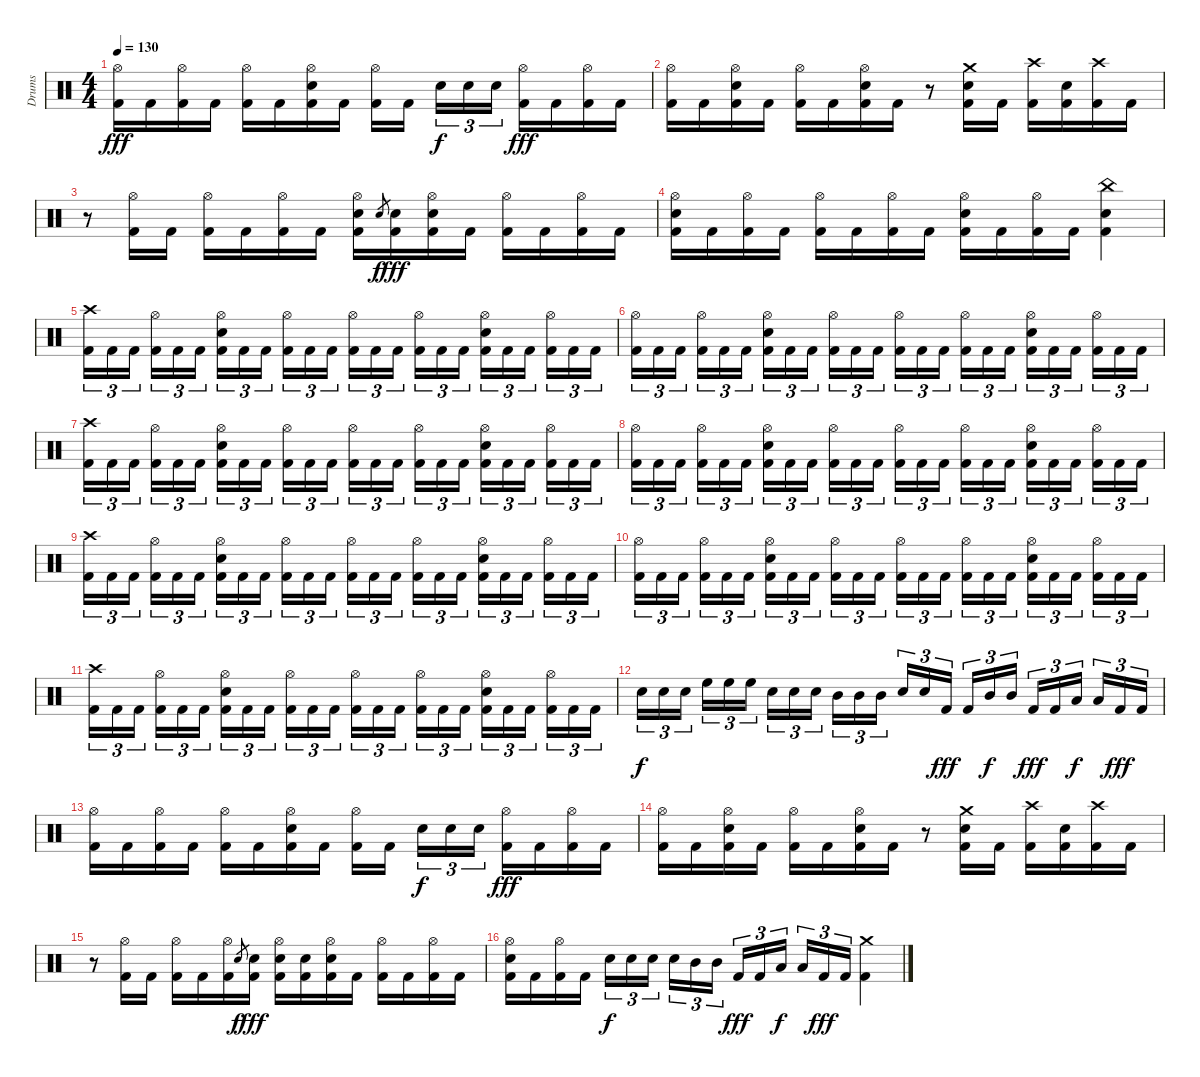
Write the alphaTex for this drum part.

\track ("Drums" "Drums") {instrument percussion}
\staff {score}
\articulation defaults
\ts (4 4)
\tempo 130
\clef neutral
\ks c
("Hi-Hat (open)" "Kick (hit) 2").16{dy fff} "Kick (hit) 2".16 ("Hi-Hat (open)" "Kick (hit) 2").16 "Kick (hit) 2".16 ("Hi-Hat (open)" "Kick (hit) 2").16 "Kick (hit) 2".16 ("Hi-Hat (open)" "Electric Snare (hit)" "Kick (hit) 2").16 "Kick (hit) 2".16 ("Hi-Hat (open)" "Kick (hit) 2").16 "Kick (hit) 2".16 "Electric Snare (hit)".16{tu (3 2) dy f} "Electric Snare (hit)".16{tu (3 2)} "Electric Snare (hit)".16{tu (3 2)} ("Hi-Hat (open)" "Kick (hit) 2").16{dy fff} "Kick (hit) 2".16 ("Hi-Hat (open)" "Kick (hit) 2").16 "Kick (hit) 2".16 |
("Hi-Hat (open)" "Kick (hit) 2").16 "Kick (hit) 2".16 ("Hi-Hat (open)" "Electric Snare (hit)" "Kick (hit) 2").16 "Kick (hit) 2".16 ("Hi-Hat (open)" "Kick (hit) 2").16 "Kick (hit) 2".16 ("Hi-Hat (open)" "Electric Snare (hit)" "Kick (hit) 2").16 "Kick (hit) 2".16 r.8 ("Crash medium (hit)" "Electric Snare (hit)" "Kick (hit) 2").16 "Kick (hit) 2".16 ("Crash high (hit)" "Kick (hit) 2").16 ("Electric Snare (hit)" "Kick (hit) 2").16 ("Crash high (hit)" "Kick (hit) 2").16 "Kick (hit) 2".16 |
r.8 ("Hi-Hat (open)" "Kick (hit) 2").16 "Kick (hit) 2".16 ("Hi-Hat (open)" "Kick (hit) 2").16 "Kick (hit) 2".16 ("Hi-Hat (open)" "Kick (hit) 2").16 "Kick (hit) 2".16 ("Hi-Hat (open)" "Electric Snare (hit)" "Kick (hit) 2").16 "Electric Snare (hit)".8{gr dy f} ("Electric Snare (hit)" "Kick (hit) 2").16{dy fff} ("Hi-Hat (open)" "Electric Snare (hit)" "Kick (hit) 2").16 "Kick (hit) 2".16 ("Hi-Hat (open)" "Kick (hit) 2").16 "Kick (hit) 2".16 ("Hi-Hat (open)" "Kick (hit) 2").16 "Kick (hit) 2".16 |
("Hi-Hat (open)" "Electric Snare (hit)" "Kick (hit) 2").16 "Kick (hit) 2".16 ("Hi-Hat (open)" "Kick (hit) 2").16 "Kick (hit) 2".16 ("Hi-Hat (open)" "Kick (hit) 2").16 "Kick (hit) 2".16 ("Hi-Hat (open)" "Kick (hit) 2").16 "Kick (hit) 2".16 ("Hi-Hat (open)" "Electric Snare (hit)" "Kick (hit) 2").16 "Kick (hit) 2".16 ("Hi-Hat (open)" "Kick (hit) 2").16 "Kick (hit) 2".16 ("China (hit)" "Electric Snare (hit)" "Kick (hit) 2").4 |
("Crash high (hit)" "Kick (hit) 2").16{tu (3 2)} "Kick (hit) 2".16{tu (3 2)} "Kick (hit) 2".16{tu (3 2)} ("Hi-Hat (open)" "Kick (hit) 2").16{tu (3 2)} "Kick (hit) 2".16{tu (3 2)} "Kick (hit) 2".16{tu (3 2)} ("Hi-Hat (open)" "Electric Snare (hit)" "Kick (hit) 2").16{tu (3 2)} "Kick (hit) 2".16{tu (3 2)} "Kick (hit) 2".16{tu (3 2)} ("Hi-Hat (open)" "Kick (hit) 2").16{tu (3 2)} "Kick (hit) 2".16{tu (3 2)} "Kick (hit) 2".16{tu (3 2)} ("Hi-Hat (open)" "Kick (hit) 2").16{tu (3 2)} "Kick (hit) 2".16{tu (3 2)} "Kick (hit) 2".16{tu (3 2)} ("Hi-Hat (open)" "Kick (hit) 2").16{tu (3 2)} "Kick (hit) 2".16{tu (3 2)} "Kick (hit) 2".16{tu (3 2)} ("Hi-Hat (open)" "Electric Snare (hit)" "Kick (hit) 2").16{tu (3 2)} "Kick (hit) 2".16{tu (3 2)} "Kick (hit) 2".16{tu (3 2)} ("Hi-Hat (open)" "Kick (hit) 2").16{tu (3 2)} "Kick (hit) 2".16{tu (3 2)} "Kick (hit) 2".16{tu (3 2)} |
("Hi-Hat (open)" "Kick (hit) 2").16{tu (3 2)} "Kick (hit) 2".16{tu (3 2)} "Kick (hit) 2".16{tu (3 2)} ("Hi-Hat (open)" "Kick (hit) 2").16{tu (3 2)} "Kick (hit) 2".16{tu (3 2)} "Kick (hit) 2".16{tu (3 2)} ("Hi-Hat (open)" "Electric Snare (hit)" "Kick (hit) 2").16{tu (3 2)} "Kick (hit) 2".16{tu (3 2)} "Kick (hit) 2".16{tu (3 2)} ("Hi-Hat (open)" "Kick (hit) 2").16{tu (3 2)} "Kick (hit) 2".16{tu (3 2)} "Kick (hit) 2".16{tu (3 2)} ("Hi-Hat (open)" "Kick (hit) 2").16{tu (3 2)} "Kick (hit) 2".16{tu (3 2)} "Kick (hit) 2".16{tu (3 2)} ("Hi-Hat (open)" "Kick (hit) 2").16{tu (3 2)} "Kick (hit) 2".16{tu (3 2)} "Kick (hit) 2".16{tu (3 2)} ("Hi-Hat (open)" "Electric Snare (hit)" "Kick (hit) 2").16{tu (3 2)} "Kick (hit) 2".16{tu (3 2)} "Kick (hit) 2".16{tu (3 2)} ("Hi-Hat (open)" "Kick (hit) 2").16{tu (3 2)} "Kick (hit) 2".16{tu (3 2)} "Kick (hit) 2".16{tu (3 2)} |
("Crash high (hit)" "Kick (hit) 2").16{tu (3 2)} "Kick (hit) 2".16{tu (3 2)} "Kick (hit) 2".16{tu (3 2)} ("Hi-Hat (open)" "Kick (hit) 2").16{tu (3 2)} "Kick (hit) 2".16{tu (3 2)} "Kick (hit) 2".16{tu (3 2)} ("Hi-Hat (open)" "Electric Snare (hit)" "Kick (hit) 2").16{tu (3 2)} "Kick (hit) 2".16{tu (3 2)} "Kick (hit) 2".16{tu (3 2)} ("Hi-Hat (open)" "Kick (hit) 2").16{tu (3 2)} "Kick (hit) 2".16{tu (3 2)} "Kick (hit) 2".16{tu (3 2)} ("Hi-Hat (open)" "Kick (hit) 2").16{tu (3 2)} "Kick (hit) 2".16{tu (3 2)} "Kick (hit) 2".16{tu (3 2)} ("Hi-Hat (open)" "Kick (hit) 2").16{tu (3 2)} "Kick (hit) 2".16{tu (3 2)} "Kick (hit) 2".16{tu (3 2)} ("Hi-Hat (open)" "Electric Snare (hit)" "Kick (hit) 2").16{tu (3 2)} "Kick (hit) 2".16{tu (3 2)} "Kick (hit) 2".16{tu (3 2)} ("Hi-Hat (open)" "Kick (hit) 2").16{tu (3 2)} "Kick (hit) 2".16{tu (3 2)} "Kick (hit) 2".16{tu (3 2)} |
("Hi-Hat (open)" "Kick (hit) 2").16{tu (3 2)} "Kick (hit) 2".16{tu (3 2)} "Kick (hit) 2".16{tu (3 2)} ("Hi-Hat (open)" "Kick (hit) 2").16{tu (3 2)} "Kick (hit) 2".16{tu (3 2)} "Kick (hit) 2".16{tu (3 2)} ("Hi-Hat (open)" "Electric Snare (hit)" "Kick (hit) 2").16{tu (3 2)} "Kick (hit) 2".16{tu (3 2)} "Kick (hit) 2".16{tu (3 2)} ("Hi-Hat (open)" "Kick (hit) 2").16{tu (3 2)} "Kick (hit) 2".16{tu (3 2)} "Kick (hit) 2".16{tu (3 2)} ("Hi-Hat (open)" "Kick (hit) 2").16{tu (3 2)} "Kick (hit) 2".16{tu (3 2)} "Kick (hit) 2".16{tu (3 2)} ("Hi-Hat (open)" "Kick (hit) 2").16{tu (3 2)} "Kick (hit) 2".16{tu (3 2)} "Kick (hit) 2".16{tu (3 2)} ("Hi-Hat (open)" "Electric Snare (hit)" "Kick (hit) 2").16{tu (3 2)} "Kick (hit) 2".16{tu (3 2)} "Kick (hit) 2".16{tu (3 2)} ("Hi-Hat (open)" "Kick (hit) 2").16{tu (3 2)} "Kick (hit) 2".16{tu (3 2)} "Kick (hit) 2".16{tu (3 2)} |
("Crash high (hit)" "Kick (hit) 2").16{tu (3 2)} "Kick (hit) 2".16{tu (3 2)} "Kick (hit) 2".16{tu (3 2)} ("Hi-Hat (open)" "Kick (hit) 2").16{tu (3 2)} "Kick (hit) 2".16{tu (3 2)} "Kick (hit) 2".16{tu (3 2)} ("Hi-Hat (open)" "Electric Snare (hit)" "Kick (hit) 2").16{tu (3 2)} "Kick (hit) 2".16{tu (3 2)} "Kick (hit) 2".16{tu (3 2)} ("Hi-Hat (open)" "Kick (hit) 2").16{tu (3 2)} "Kick (hit) 2".16{tu (3 2)} "Kick (hit) 2".16{tu (3 2)} ("Hi-Hat (open)" "Kick (hit) 2").16{tu (3 2)} "Kick (hit) 2".16{tu (3 2)} "Kick (hit) 2".16{tu (3 2)} ("Hi-Hat (open)" "Kick (hit) 2").16{tu (3 2)} "Kick (hit) 2".16{tu (3 2)} "Kick (hit) 2".16{tu (3 2)} ("Hi-Hat (open)" "Electric Snare (hit)" "Kick (hit) 2").16{tu (3 2)} "Kick (hit) 2".16{tu (3 2)} "Kick (hit) 2".16{tu (3 2)} ("Hi-Hat (open)" "Kick (hit) 2").16{tu (3 2)} "Kick (hit) 2".16{tu (3 2)} "Kick (hit) 2".16{tu (3 2)} |
("Hi-Hat (open)" "Kick (hit) 2").16{tu (3 2)} "Kick (hit) 2".16{tu (3 2)} "Kick (hit) 2".16{tu (3 2)} ("Hi-Hat (open)" "Kick (hit) 2").16{tu (3 2)} "Kick (hit) 2".16{tu (3 2)} "Kick (hit) 2".16{tu (3 2)} ("Hi-Hat (open)" "Electric Snare (hit)" "Kick (hit) 2").16{tu (3 2)} "Kick (hit) 2".16{tu (3 2)} "Kick (hit) 2".16{tu (3 2)} ("Hi-Hat (open)" "Kick (hit) 2").16{tu (3 2)} "Kick (hit) 2".16{tu (3 2)} "Kick (hit) 2".16{tu (3 2)} ("Hi-Hat (open)" "Kick (hit) 2").16{tu (3 2)} "Kick (hit) 2".16{tu (3 2)} "Kick (hit) 2".16{tu (3 2)} ("Hi-Hat (open)" "Kick (hit) 2").16{tu (3 2)} "Kick (hit) 2".16{tu (3 2)} "Kick (hit) 2".16{tu (3 2)} ("Hi-Hat (open)" "Electric Snare (hit)" "Kick (hit) 2").16{tu (3 2)} "Kick (hit) 2".16{tu (3 2)} "Kick (hit) 2".16{tu (3 2)} ("Hi-Hat (open)" "Kick (hit) 2").16{tu (3 2)} "Kick (hit) 2".16{tu (3 2)} "Kick (hit) 2".16{tu (3 2)} |
("Crash high (hit)" "Kick (hit) 2").16{tu (3 2)} "Kick (hit) 2".16{tu (3 2)} "Kick (hit) 2".16{tu (3 2)} ("Hi-Hat (open)" "Kick (hit) 2").16{tu (3 2)} "Kick (hit) 2".16{tu (3 2)} "Kick (hit) 2".16{tu (3 2)} ("Hi-Hat (open)" "Electric Snare (hit)" "Kick (hit) 2").16{tu (3 2)} "Kick (hit) 2".16{tu (3 2)} "Kick (hit) 2".16{tu (3 2)} ("Hi-Hat (open)" "Kick (hit) 2").16{tu (3 2)} "Kick (hit) 2".16{tu (3 2)} "Kick (hit) 2".16{tu (3 2)} ("Hi-Hat (open)" "Kick (hit) 2").16{tu (3 2)} "Kick (hit) 2".16{tu (3 2)} "Kick (hit) 2".16{tu (3 2)} ("Hi-Hat (open)" "Kick (hit) 2").16{tu (3 2)} "Kick (hit) 2".16{tu (3 2)} "Kick (hit) 2".16{tu (3 2)} ("Hi-Hat (open)" "Electric Snare (hit)" "Kick (hit) 2").16{tu (3 2)} "Kick (hit) 2".16{tu (3 2)} "Kick (hit) 2".16{tu (3 2)} ("Hi-Hat (open)" "Kick (hit) 2").16{tu (3 2)} "Kick (hit) 2".16{tu (3 2)} "Kick (hit) 2".16{tu (3 2)} |
"Electric Snare (hit)".16{tu (3 2) dy f} "Electric Snare (hit)".16{tu (3 2)} "Electric Snare (hit)".16{tu (3 2)} "High Floor Tom (hit)".16{tu (3 2)} "High Floor Tom (hit)".16{tu (3 2)} "High Floor Tom (hit)".16{tu (3 2)} "Electric Snare (hit)".16{tu (3 2)} "Electric Snare (hit)".16{tu (3 2)} "Electric Snare (hit)".16{tu (3 2)} "Mid Tom (hit)".16{tu (3 2)} "Mid Tom (hit)".16{tu (3 2)} "Mid Tom (hit)".16{tu (3 2)} "Electric Snare (hit)".16{tu (3 2)} "Electric Snare (hit)".16{tu (3 2)} "Kick (hit) 2".16{tu (3 2) dy fff} "Kick (hit) 2".16{tu (3 2)} "Mid Tom (hit)".16{tu (3 2) dy f} "Mid Tom (hit)".16{tu (3 2)} "Kick (hit) 2".16{tu (3 2) dy fff} "Kick (hit) 2".16{tu (3 2)} "Low Tom (hit)".16{tu (3 2) dy f} "Low Tom (hit)".16{tu (3 2)} "Kick (hit) 2".16{tu (3 2) dy fff} "Kick (hit) 2".16{tu (3 2)} |
("Hi-Hat (open)" "Kick (hit) 2").16 "Kick (hit) 2".16 ("Hi-Hat (open)" "Kick (hit) 2").16 "Kick (hit) 2".16 ("Hi-Hat (open)" "Kick (hit) 2").16 "Kick (hit) 2".16 ("Hi-Hat (open)" "Electric Snare (hit)" "Kick (hit) 2").16 "Kick (hit) 2".16 ("Hi-Hat (open)" "Kick (hit) 2").16 "Kick (hit) 2".16 "Electric Snare (hit)".16{tu (3 2) dy f} "Electric Snare (hit)".16{tu (3 2)} "Electric Snare (hit)".16{tu (3 2)} ("Hi-Hat (open)" "Kick (hit) 2").16{dy fff} "Kick (hit) 2".16 ("Hi-Hat (open)" "Kick (hit) 2").16 "Kick (hit) 2".16 |
("Hi-Hat (open)" "Kick (hit) 2").16 "Kick (hit) 2".16 ("Hi-Hat (open)" "Electric Snare (hit)" "Kick (hit) 2").16 "Kick (hit) 2".16 ("Hi-Hat (open)" "Kick (hit) 2").16 "Kick (hit) 2".16 ("Hi-Hat (open)" "Electric Snare (hit)" "Kick (hit) 2").16 "Kick (hit) 2".16 r.8 ("Crash medium (hit)" "Electric Snare (hit)" "Kick (hit) 2").16 "Kick (hit) 2".16 ("Crash high (hit)" "Kick (hit) 2").16 ("Electric Snare (hit)" "Kick (hit) 2").16 ("Crash high (hit)" "Kick (hit) 2").16 "Kick (hit) 2".16 |
r.8 ("Hi-Hat (open)" "Kick (hit) 2").16 "Kick (hit) 2".16 ("Hi-Hat (open)" "Kick (hit) 2").16 "Kick (hit) 2".16 ("Hi-Hat (open)" "Kick (hit) 2").16 "Electric Snare (hit)".8{gr dy f} ("Electric Snare (hit)" "Kick (hit) 2").16{dy fff} ("Hi-Hat (open)" "Electric Snare (hit)" "Kick (hit) 2").16 ("Electric Snare (hit)" "Kick (hit) 2").16 ("Hi-Hat (open)" "Electric Snare (hit)" "Kick (hit) 2").16 "Kick (hit) 2".16 ("Hi-Hat (open)" "Kick (hit) 2").16 "Kick (hit) 2".16 ("Hi-Hat (open)" "Kick (hit) 2").16 "Kick (hit) 2".16 |
("Hi-Hat (open)" "Electric Snare (hit)" "Kick (hit) 2").16 "Kick (hit) 2".16 ("Hi-Hat (open)" "Kick (hit) 2").16 "Kick (hit) 2".16 "Electric Snare (hit)".16{tu (3 2) dy f} "Electric Snare (hit)".16{tu (3 2)} "Electric Snare (hit)".16{tu (3 2)} "Electric Snare (hit)".16{tu (3 2)} "Mid Tom (hit)".16{tu (3 2)} "Mid Tom (hit)".16{tu (3 2)} "Kick (hit) 2".16{tu (3 2) dy fff} "Kick (hit) 2".16{tu (3 2)} "Low Tom (hit)".16{tu (3 2) dy f} "Low Tom (hit)".16{tu (3 2)} "Kick (hit) 2".16{tu (3 2) dy fff} "Kick (hit) 2".16{tu (3 2)} ("Crash medium (hit)" "Kick (hit) 2").4
